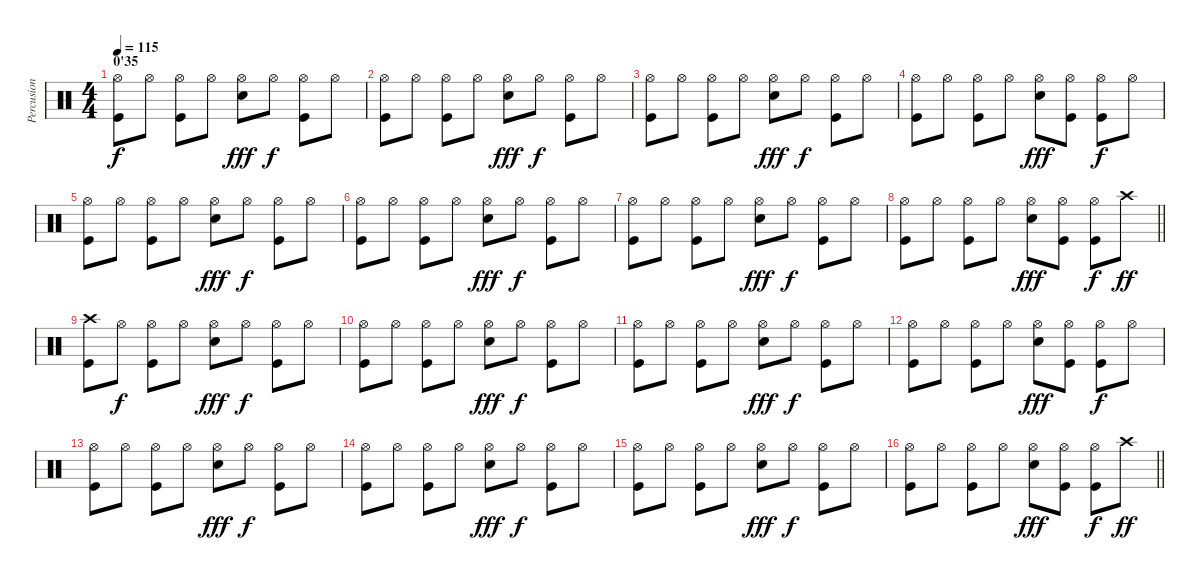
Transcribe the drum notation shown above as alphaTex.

\track ("Percusion" "Percusion") {instrument percussion}
\staff {score}
\articulation defaults
\ts (4 4)
\section ("" "0'35")
\tempo 115
\clef neutral
\ks c
("Hi-Hat (open)" "Kick (hit)").8{dy f} "Hi-Hat (open)".8 ("Hi-Hat (open)" "Kick (hit)").8 "Hi-Hat (open)".8 ("Hi-Hat (open)" "Electric Snare (hit)").8{dy fff} "Hi-Hat (open)".8{dy f} ("Hi-Hat (open)" "Kick (hit)").8 "Hi-Hat (open)".8 |
("Hi-Hat (open)" "Kick (hit)").8 "Hi-Hat (open)".8 ("Hi-Hat (open)" "Kick (hit)").8 "Hi-Hat (open)".8 ("Hi-Hat (open)" "Electric Snare (hit)").8{dy fff} "Hi-Hat (open)".8{dy f} ("Hi-Hat (open)" "Kick (hit)").8 "Hi-Hat (open)".8 |
("Hi-Hat (open)" "Kick (hit)").8 "Hi-Hat (open)".8 ("Hi-Hat (open)" "Kick (hit)").8 "Hi-Hat (open)".8 ("Hi-Hat (open)" "Electric Snare (hit)").8{dy fff} "Hi-Hat (open)".8{dy f} ("Hi-Hat (open)" "Kick (hit)").8 "Hi-Hat (open)".8 |
("Hi-Hat (open)" "Kick (hit)").8 "Hi-Hat (open)".8 ("Hi-Hat (open)" "Kick (hit)").8 "Hi-Hat (open)".8 ("Hi-Hat (open)" "Electric Snare (hit)").8{dy fff} ("Hi-Hat (open)" "Kick (hit)").8 ("Hi-Hat (open)" "Kick (hit)").8{dy f} "Hi-Hat (open)".8 |
("Hi-Hat (open)" "Kick (hit)").8 "Hi-Hat (open)".8 ("Hi-Hat (open)" "Kick (hit)").8 "Hi-Hat (open)".8 ("Hi-Hat (open)" "Electric Snare (hit)").8{dy fff} "Hi-Hat (open)".8{dy f} ("Hi-Hat (open)" "Kick (hit)").8 "Hi-Hat (open)".8 |
("Hi-Hat (open)" "Kick (hit)").8 "Hi-Hat (open)".8 ("Hi-Hat (open)" "Kick (hit)").8 "Hi-Hat (open)".8 ("Hi-Hat (open)" "Electric Snare (hit)").8{dy fff} "Hi-Hat (open)".8{dy f} ("Hi-Hat (open)" "Kick (hit)").8 "Hi-Hat (open)".8 |
("Hi-Hat (open)" "Kick (hit)").8 "Hi-Hat (open)".8 ("Hi-Hat (open)" "Kick (hit)").8 "Hi-Hat (open)".8 ("Hi-Hat (open)" "Electric Snare (hit)").8{dy fff} "Hi-Hat (open)".8{dy f} ("Hi-Hat (open)" "Kick (hit)").8 "Hi-Hat (open)".8 |
\barLineRight lightlight
("Hi-Hat (open)" "Kick (hit)").8 "Hi-Hat (open)".8 ("Hi-Hat (open)" "Kick (hit)").8 "Hi-Hat (open)".8 ("Hi-Hat (open)" "Electric Snare (hit)").8{dy fff} ("Hi-Hat (open)" "Kick (hit)").8 ("Hi-Hat (open)" "Kick (hit)").8{dy f} "Crash high (hit)".8{dy ff} |
("Crash high (hit)" "Kick (hit)").8 "Hi-Hat (open)".8{dy f} ("Hi-Hat (open)" "Kick (hit)").8 "Hi-Hat (open)".8 ("Hi-Hat (open)" "Electric Snare (hit)").8{dy fff} "Hi-Hat (open)".8{dy f} ("Hi-Hat (open)" "Kick (hit)").8 "Hi-Hat (open)".8 |
("Hi-Hat (open)" "Kick (hit)").8 "Hi-Hat (open)".8 ("Hi-Hat (open)" "Kick (hit)").8 "Hi-Hat (open)".8 ("Hi-Hat (open)" "Electric Snare (hit)").8{dy fff} "Hi-Hat (open)".8{dy f} ("Hi-Hat (open)" "Kick (hit)").8 "Hi-Hat (open)".8 |
("Hi-Hat (open)" "Kick (hit)").8 "Hi-Hat (open)".8 ("Hi-Hat (open)" "Kick (hit)").8 "Hi-Hat (open)".8 ("Hi-Hat (open)" "Electric Snare (hit)").8{dy fff} "Hi-Hat (open)".8{dy f} ("Hi-Hat (open)" "Kick (hit)").8 "Hi-Hat (open)".8 |
("Hi-Hat (open)" "Kick (hit)").8 "Hi-Hat (open)".8 ("Hi-Hat (open)" "Kick (hit)").8 "Hi-Hat (open)".8 ("Hi-Hat (open)" "Electric Snare (hit)").8{dy fff} ("Hi-Hat (open)" "Kick (hit)").8 ("Hi-Hat (open)" "Kick (hit)").8{dy f} "Hi-Hat (open)".8 |
("Hi-Hat (open)" "Kick (hit)").8 "Hi-Hat (open)".8 ("Hi-Hat (open)" "Kick (hit)").8 "Hi-Hat (open)".8 ("Hi-Hat (open)" "Electric Snare (hit)").8{dy fff} "Hi-Hat (open)".8{dy f} ("Hi-Hat (open)" "Kick (hit)").8 "Hi-Hat (open)".8 |
("Hi-Hat (open)" "Kick (hit)").8 "Hi-Hat (open)".8 ("Hi-Hat (open)" "Kick (hit)").8 "Hi-Hat (open)".8 ("Hi-Hat (open)" "Electric Snare (hit)").8{dy fff} "Hi-Hat (open)".8{dy f} ("Hi-Hat (open)" "Kick (hit)").8 "Hi-Hat (open)".8 |
("Hi-Hat (open)" "Kick (hit)").8 "Hi-Hat (open)".8 ("Hi-Hat (open)" "Kick (hit)").8 "Hi-Hat (open)".8 ("Hi-Hat (open)" "Electric Snare (hit)").8{dy fff} "Hi-Hat (open)".8{dy f} ("Hi-Hat (open)" "Kick (hit)").8 "Hi-Hat (open)".8 |
\barLineRight lightlight
("Hi-Hat (open)" "Kick (hit)").8 "Hi-Hat (open)".8 ("Hi-Hat (open)" "Kick (hit)").8 "Hi-Hat (open)".8 ("Hi-Hat (open)" "Electric Snare (hit)").8{dy fff} ("Hi-Hat (open)" "Kick (hit)").8 ("Hi-Hat (open)" "Kick (hit)").8{dy f} "Crash high (hit)".8{dy ff}
